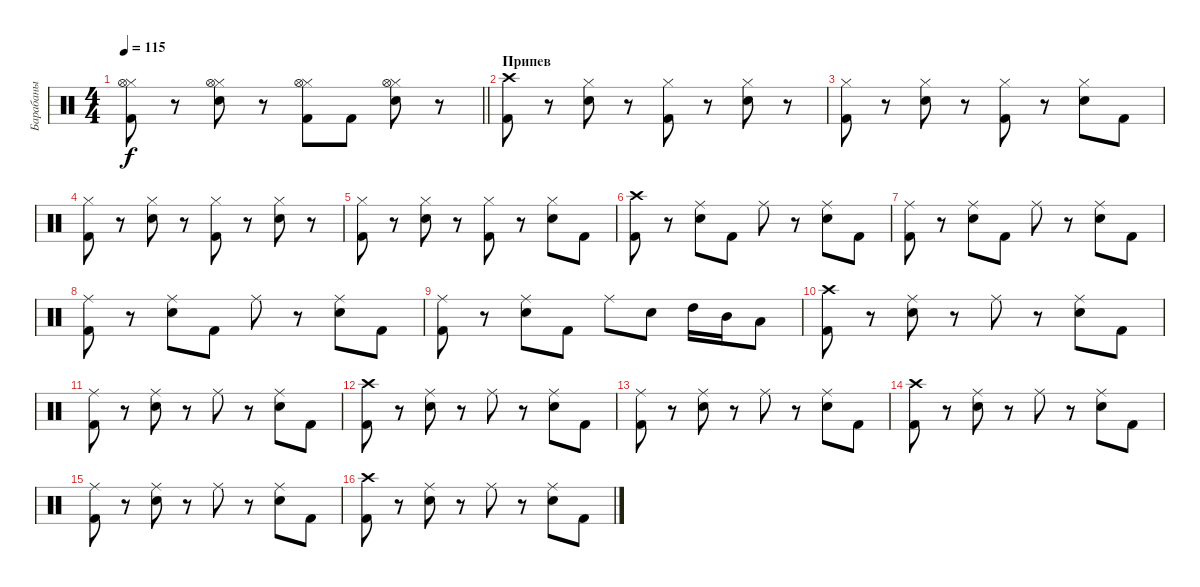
\track ("Барабаны" "Барабаны") {instrument percussion}
\staff {score}
\articulation defaults
\ts (4 4)
\tempo 115
\clef neutral
\barLineRight lightlight
\ks c
("Kick (hit) 2" "Hi-Hat (closed)" "Hi-Hat (open)").8{dy f} r.8 ("Snare (hit) 2" "Hi-Hat (closed)" "Hi-Hat (open)").8 r.8 ("Kick (hit) 2" "Hi-Hat (closed)" "Hi-Hat (open)").8 "Kick (hit) 2".8 ("Snare (hit) 2" "Hi-Hat (closed)" "Hi-Hat (open)").8 r.8 |
\section ("" "Припев")
("Kick (hit) 2" "Crash high (hit)").8 r.8 ("Snare (hit) 2" "Hi-Hat (closed)").8 r.8 ("Kick (hit) 2" "Hi-Hat (closed)").8 r.8 ("Snare (hit) 2" "Hi-Hat (closed)").8 r.8 |
("Kick (hit) 2" "Hi-Hat (closed)").8 r.8 ("Snare (hit) 2" "Hi-Hat (closed)").8 r.8 ("Kick (hit) 2" "Hi-Hat (closed)").8 r.8 ("Snare (hit) 2" "Hi-Hat (closed)").8 "Kick (hit) 2".8 |
("Kick (hit) 2" "Hi-Hat (closed)").8 r.8 ("Snare (hit) 2" "Hi-Hat (closed)").8 r.8 ("Kick (hit) 2" "Hi-Hat (closed)").8 r.8 ("Snare (hit) 2" "Hi-Hat (closed)").8 r.8 |
("Kick (hit) 2" "Hi-Hat (closed)").8 r.8 ("Snare (hit) 2" "Hi-Hat (closed)").8 r.8 ("Kick (hit) 2" "Hi-Hat (closed)").8 r.8 ("Snare (hit) 2" "Hi-Hat (closed)").8 "Kick (hit) 2".8 |
("Kick (hit) 2" "Crash high (hit)").8 r.8 ("Snare (hit) 2" "Ride (middle)").8 "Kick (hit) 2".8 "Ride (middle)".8 r.8 ("Snare (hit) 2" "Ride (middle)").8 "Kick (hit) 2".8 |
("Kick (hit) 2" "Ride (middle)").8 r.8 ("Snare (hit) 2" "Ride (middle)").8 "Kick (hit) 2".8 "Ride (middle)".8 r.8 ("Snare (hit) 2" "Ride (middle)").8 "Kick (hit) 2".8 |
("Kick (hit) 2" "Ride (middle)").8 r.8 ("Snare (hit) 2" "Ride (middle)").8 "Kick (hit) 2".8 "Ride (middle)".8 r.8 ("Snare (hit) 2" "Ride (middle)").8 "Kick (hit) 2".8 |
("Kick (hit) 2" "Ride (middle)").8 r.8 ("Snare (hit) 2" "Ride (middle)").8 "Kick (hit) 2".8 "Ride (middle)".8 "Electric Snare (hit)".8 "High Tom (hit)".16 "Mid Tom (hit)".16 "Low Tom (hit)".8 |
("Kick (hit) 2" "Crash high (hit)").8 r.8 ("Snare (hit) 2" "Ride (middle)").8 r.8 "Ride (middle)".8 r.8 ("Snare (hit) 2" "Ride (middle)").8 "Kick (hit) 2".8 |
("Kick (hit) 2" "Ride (middle)").8 r.8 ("Snare (hit) 2" "Ride (middle)").8 r.8 "Ride (middle)".8 r.8 ("Snare (hit) 2" "Ride (middle)").8 "Kick (hit) 2".8 |
("Kick (hit) 2" "Crash high (hit)").8 r.8 ("Snare (hit) 2" "Ride (middle)").8 r.8 "Ride (middle)".8 r.8 ("Snare (hit) 2" "Ride (middle)").8 "Kick (hit) 2".8 |
("Kick (hit) 2" "Ride (middle)").8 r.8 ("Snare (hit) 2" "Ride (middle)").8 r.8 "Ride (middle)".8 r.8 ("Snare (hit) 2" "Ride (middle)").8 "Kick (hit) 2".8 |
("Kick (hit) 2" "Crash high (hit)").8 r.8 ("Snare (hit) 2" "Ride (middle)").8 r.8 "Ride (middle)".8 r.8 ("Snare (hit) 2" "Ride (middle)").8 "Kick (hit) 2".8 |
("Kick (hit) 2" "Ride (middle)").8 r.8 ("Snare (hit) 2" "Ride (middle)").8 r.8 "Ride (middle)".8 r.8 ("Snare (hit) 2" "Ride (middle)").8 "Kick (hit) 2".8 |
("Kick (hit) 2" "Crash high (hit)").8 r.8 ("Snare (hit) 2" "Ride (middle)").8 r.8 "Ride (middle)".8 r.8 ("Snare (hit) 2" "Ride (middle)").8 "Kick (hit) 2".8
